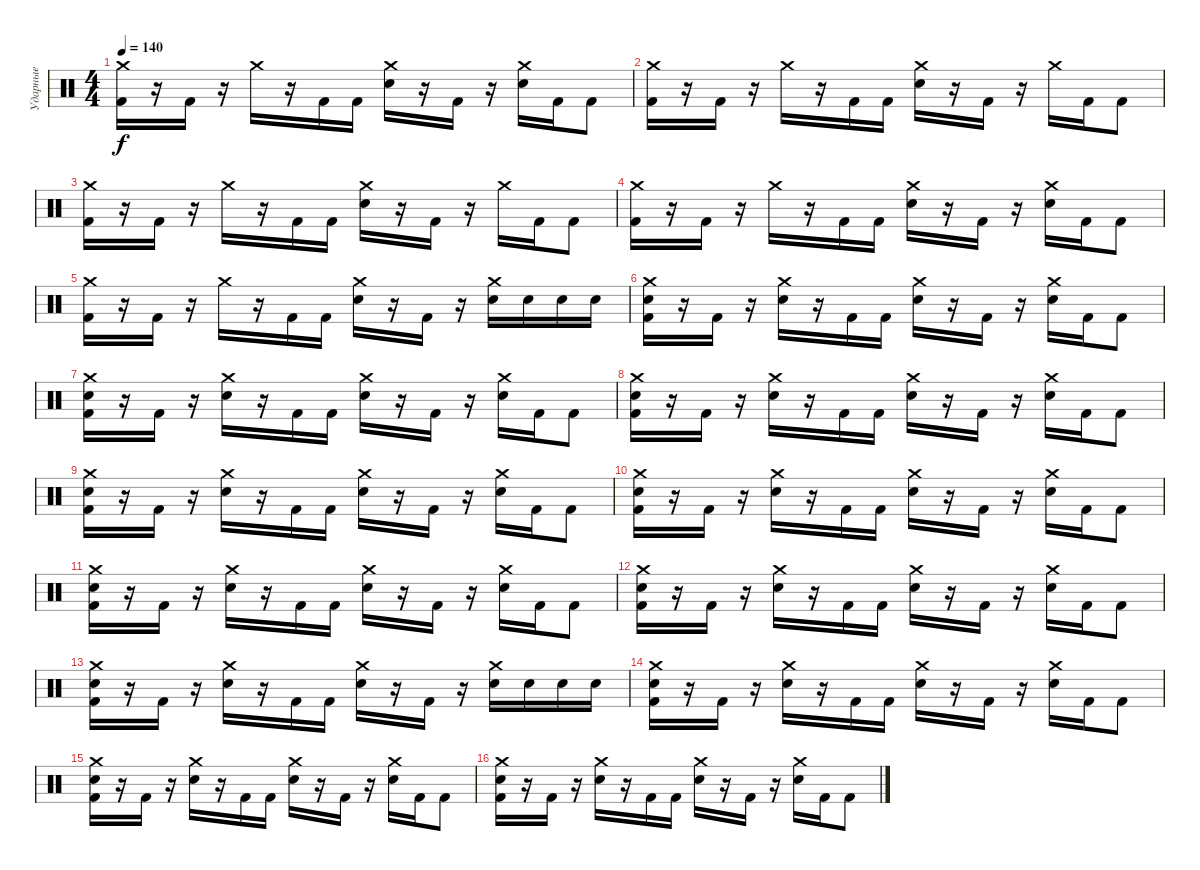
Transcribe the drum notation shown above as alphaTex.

\track ("Ударные" "Ударные") {instrument percussion}
\staff {score}
\articulation defaults
\ts (4 4)
\tempo 140
\clef neutral
\ks c
("Crash medium (hit)" "Kick (hit) 2").16{dy f} r.16 "Kick (hit) 2".16 r.16 "Crash medium (hit)".16 r.16 "Kick (hit) 2".16 "Kick (hit) 2".16 ("Crash medium (hit)" "Electric Snare (hit)").16 r.16 "Kick (hit) 2".16 r.16 ("Crash medium (hit)" "Electric Snare (hit)").16 "Kick (hit) 2".16 "Kick (hit) 2".8 |
("Crash medium (hit)" "Kick (hit) 2").16 r.16 "Kick (hit) 2".16 r.16 "Crash medium (hit)".16 r.16 "Kick (hit) 2".16 "Kick (hit) 2".16 ("Crash medium (hit)" "Electric Snare (hit)").16 r.16 "Kick (hit) 2".16 r.16 "Crash medium (hit)".16 "Kick (hit) 2".16 "Kick (hit) 2".8 |
("Crash medium (hit)" "Kick (hit) 2").16 r.16 "Kick (hit) 2".16 r.16 "Crash medium (hit)".16 r.16 "Kick (hit) 2".16 "Kick (hit) 2".16 ("Crash medium (hit)" "Electric Snare (hit)").16 r.16 "Kick (hit) 2".16 r.16 "Crash medium (hit)".16 "Kick (hit) 2".16 "Kick (hit) 2".8 |
("Crash medium (hit)" "Kick (hit) 2").16 r.16 "Kick (hit) 2".16 r.16 "Crash medium (hit)".16 r.16 "Kick (hit) 2".16 "Kick (hit) 2".16 ("Crash medium (hit)" "Electric Snare (hit)").16 r.16 "Kick (hit) 2".16 r.16 ("Crash medium (hit)" "Electric Snare (hit)").16 "Kick (hit) 2".16 "Kick (hit) 2".8 |
("Crash medium (hit)" "Kick (hit) 2").16 r.16 "Kick (hit) 2".16 r.16 "Crash medium (hit)".16 r.16 "Kick (hit) 2".16 "Kick (hit) 2".16 ("Crash medium (hit)" "Electric Snare (hit)").16 r.16 "Kick (hit) 2".16 r.16 ("Crash medium (hit)" "Electric Snare (hit)").16 "Electric Snare (hit)".16 "Electric Snare (hit)".16 "Electric Snare (hit)".16 |
("Crash medium (hit)" "Electric Snare (hit)" "Kick (hit) 2").16 r.16 "Kick (hit) 2".16 r.16 ("Crash medium (hit)" "Electric Snare (hit)").16 r.16 "Kick (hit) 2".16 "Kick (hit) 2".16 ("Crash medium (hit)" "Electric Snare (hit)").16 r.16 "Kick (hit) 2".16 r.16 ("Crash medium (hit)" "Electric Snare (hit)").16 "Kick (hit) 2".16 "Kick (hit) 2".8 |
("Crash medium (hit)" "Electric Snare (hit)" "Kick (hit) 2").16 r.16 "Kick (hit) 2".16 r.16 ("Crash medium (hit)" "Electric Snare (hit)").16 r.16 "Kick (hit) 2".16 "Kick (hit) 2".16 ("Crash medium (hit)" "Electric Snare (hit)").16 r.16 "Kick (hit) 2".16 r.16 ("Crash medium (hit)" "Electric Snare (hit)").16 "Kick (hit) 2".16 "Kick (hit) 2".8 |
("Crash medium (hit)" "Electric Snare (hit)" "Kick (hit) 2").16 r.16 "Kick (hit) 2".16 r.16 ("Crash medium (hit)" "Electric Snare (hit)").16 r.16 "Kick (hit) 2".16 "Kick (hit) 2".16 ("Crash medium (hit)" "Electric Snare (hit)").16 r.16 "Kick (hit) 2".16 r.16 ("Crash medium (hit)" "Electric Snare (hit)").16 "Kick (hit) 2".16 "Kick (hit) 2".8 |
("Crash medium (hit)" "Electric Snare (hit)" "Kick (hit) 2").16 r.16 "Kick (hit) 2".16 r.16 ("Crash medium (hit)" "Electric Snare (hit)").16 r.16 "Kick (hit) 2".16 "Kick (hit) 2".16 ("Crash medium (hit)" "Electric Snare (hit)").16 r.16 "Kick (hit) 2".16 r.16 ("Crash medium (hit)" "Electric Snare (hit)").16 "Kick (hit) 2".16 "Kick (hit) 2".8 |
("Crash medium (hit)" "Electric Snare (hit)" "Kick (hit) 2").16 r.16 "Kick (hit) 2".16 r.16 ("Crash medium (hit)" "Electric Snare (hit)").16 r.16 "Kick (hit) 2".16 "Kick (hit) 2".16 ("Crash medium (hit)" "Electric Snare (hit)").16 r.16 "Kick (hit) 2".16 r.16 ("Crash medium (hit)" "Electric Snare (hit)").16 "Kick (hit) 2".16 "Kick (hit) 2".8 |
("Crash medium (hit)" "Electric Snare (hit)" "Kick (hit) 2").16 r.16 "Kick (hit) 2".16 r.16 ("Crash medium (hit)" "Electric Snare (hit)").16 r.16 "Kick (hit) 2".16 "Kick (hit) 2".16 ("Crash medium (hit)" "Electric Snare (hit)").16 r.16 "Kick (hit) 2".16 r.16 ("Crash medium (hit)" "Electric Snare (hit)").16 "Kick (hit) 2".16 "Kick (hit) 2".8 |
("Crash medium (hit)" "Electric Snare (hit)" "Kick (hit) 2").16 r.16 "Kick (hit) 2".16 r.16 ("Crash medium (hit)" "Electric Snare (hit)").16 r.16 "Kick (hit) 2".16 "Kick (hit) 2".16 ("Crash medium (hit)" "Electric Snare (hit)").16 r.16 "Kick (hit) 2".16 r.16 ("Crash medium (hit)" "Electric Snare (hit)").16 "Kick (hit) 2".16 "Kick (hit) 2".8 |
("Crash medium (hit)" "Electric Snare (hit)" "Kick (hit) 2").16 r.16 "Kick (hit) 2".16 r.16 ("Crash medium (hit)" "Electric Snare (hit)").16 r.16 "Kick (hit) 2".16 "Kick (hit) 2".16 ("Crash medium (hit)" "Electric Snare (hit)").16 r.16 "Kick (hit) 2".16 r.16 ("Crash medium (hit)" "Electric Snare (hit)").16 "Electric Snare (hit)".16 "Electric Snare (hit)".16 "Electric Snare (hit)".16 |
("Crash medium (hit)" "Electric Snare (hit)" "Kick (hit) 2").16 r.16 "Kick (hit) 2".16 r.16 ("Crash medium (hit)" "Electric Snare (hit)").16 r.16 "Kick (hit) 2".16 "Kick (hit) 2".16 ("Crash medium (hit)" "Electric Snare (hit)").16 r.16 "Kick (hit) 2".16 r.16 ("Crash medium (hit)" "Electric Snare (hit)").16 "Kick (hit) 2".16 "Kick (hit) 2".8 |
("Crash medium (hit)" "Electric Snare (hit)" "Kick (hit) 2").16 r.16 "Kick (hit) 2".16 r.16 ("Crash medium (hit)" "Electric Snare (hit)").16 r.16 "Kick (hit) 2".16 "Kick (hit) 2".16 ("Crash medium (hit)" "Electric Snare (hit)").16 r.16 "Kick (hit) 2".16 r.16 ("Crash medium (hit)" "Electric Snare (hit)").16 "Kick (hit) 2".16 "Kick (hit) 2".8 |
("Crash medium (hit)" "Electric Snare (hit)" "Kick (hit) 2").16 r.16 "Kick (hit) 2".16 r.16 ("Crash medium (hit)" "Electric Snare (hit)").16 r.16 "Kick (hit) 2".16 "Kick (hit) 2".16 ("Crash medium (hit)" "Electric Snare (hit)").16 r.16 "Kick (hit) 2".16 r.16 ("Crash medium (hit)" "Electric Snare (hit)").16 "Kick (hit) 2".16 "Kick (hit) 2".8
